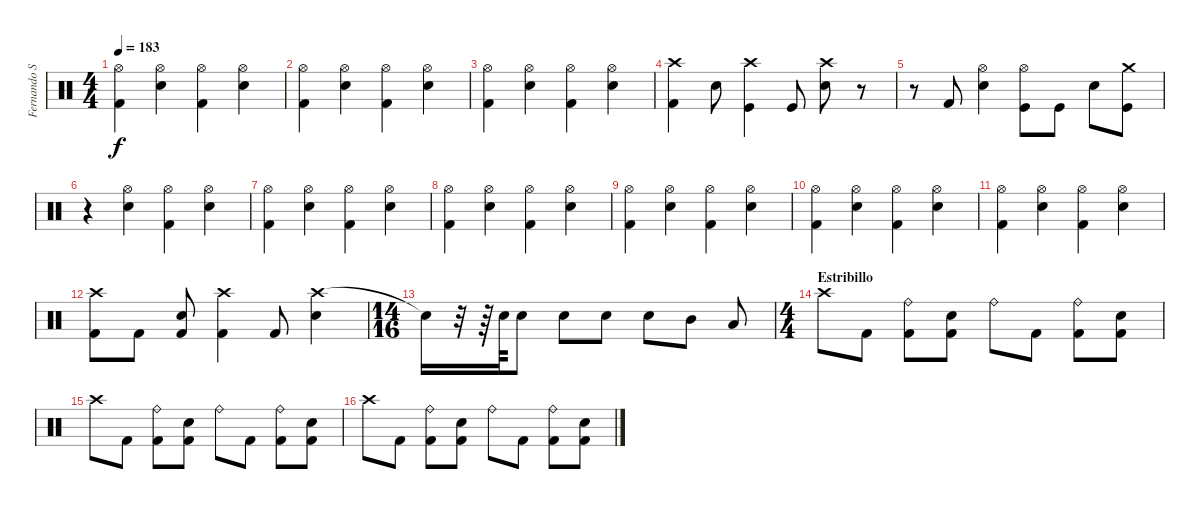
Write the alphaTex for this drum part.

\track ("Fernando Scarcella" "Fernando S") {instrument percussion}
\staff {score}
\articulation defaults
\ts (4 4)
\tempo 183
\clef neutral
\ks c
("Hi-Hat (open)" "Kick (hit) 2").4{dy f} ("Hi-Hat (open)" "Snare (hit) 2").4 ("Hi-Hat (open)" "Kick (hit) 2").4 ("Hi-Hat (open)" "Snare (hit) 2").4 |
("Hi-Hat (open)" "Kick (hit) 2").4 ("Hi-Hat (open)" "Snare (hit) 2").4 ("Hi-Hat (open)" "Kick (hit) 2").4 ("Hi-Hat (open)" "Snare (hit) 2").4 |
("Hi-Hat (open)" "Kick (hit) 2").4 ("Hi-Hat (open)" "Snare (hit) 2").4 ("Hi-Hat (open)" "Kick (hit) 2").4 ("Hi-Hat (open)" "Snare (hit) 2").4 |
("Crash high (hit)" "Kick (hit) 2").4 "Snare (hit) 2".8 ("Crash high (hit)" "Kick (hit)").4 "Kick (hit)".8 ("Crash high (hit)" "Snare (hit) 2").8 r.8 |
r.8 "Kick (hit) 2".8 ("Hi-Hat (open)" "Snare (hit) 2").4 ("Kick (hit)" "Hi-Hat (open)").8 "Kick (hit)".8 "Snare (hit) 2".8 ("Kick (hit)" "Crash medium (hit)").8 |
r.4 ("Hi-Hat (open)" "Snare (hit) 2").4 ("Hi-Hat (open)" "Kick (hit) 2").4 ("Hi-Hat (open)" "Snare (hit) 2").4 |
("Hi-Hat (open)" "Kick (hit) 2").4 ("Hi-Hat (open)" "Snare (hit) 2").4 ("Hi-Hat (open)" "Kick (hit) 2").4 ("Hi-Hat (open)" "Snare (hit) 2").4 |
("Hi-Hat (open)" "Kick (hit) 2").4 ("Hi-Hat (open)" "Snare (hit) 2").4 ("Hi-Hat (open)" "Kick (hit) 2").4 ("Hi-Hat (open)" "Snare (hit) 2").4 |
("Hi-Hat (open)" "Kick (hit) 2").4 ("Hi-Hat (open)" "Snare (hit) 2").4 ("Hi-Hat (open)" "Kick (hit) 2").4 ("Hi-Hat (open)" "Snare (hit) 2").4 |
("Hi-Hat (open)" "Kick (hit) 2").4 ("Hi-Hat (open)" "Snare (hit) 2").4 ("Hi-Hat (open)" "Kick (hit) 2").4 ("Hi-Hat (open)" "Snare (hit) 2").4 |
("Hi-Hat (open)" "Kick (hit) 2").4 ("Hi-Hat (open)" "Snare (hit) 2").4 ("Hi-Hat (open)" "Kick (hit) 2").4 ("Hi-Hat (open)" "Snare (hit) 2").4 |
("Crash high (hit)" "Kick (hit) 2").8 "Kick (hit) 2".8 ("Kick (hit) 2" "Snare (hit) 2").8 ("Crash high (hit)" "Kick (hit) 2").4 "Kick (hit) 2".8 ("Crash high (hit)" "Snare (hit) 2").4 |
\ts (14 16)
"Snare (hit)"{t}.16 r.32 r.64 "Snare (hit) 2".64 "Snare (hit) 2".8 "Snare (hit) 2".8 "Snare (hit) 2".8 "Snare (hit) 2".8 "Mid Tom (hit)".8 "Low Tom (hit)".8 |
\ts (4 4)
\section ("" "Estribillo")
"Crash high (hit)".8 "Kick (hit) 2".8 ("Kick (hit) 2" "Ride (bell)").8 ("Kick (hit) 2" "Snare (hit) 2").8 "Ride (bell)".8 "Kick (hit) 2".8 ("Kick (hit) 2" "Ride (bell)").8 ("Kick (hit) 2" "Snare (hit) 2").8 |
"Crash high (hit)".8 "Kick (hit) 2".8 ("Kick (hit) 2" "Ride (bell)").8 ("Kick (hit) 2" "Snare (hit) 2").8 "Ride (bell)".8 "Kick (hit) 2".8 ("Kick (hit) 2" "Ride (bell)").8 ("Kick (hit) 2" "Snare (hit) 2").8 |
"Crash high (hit)".8 "Kick (hit) 2".8 ("Kick (hit) 2" "Ride (bell)").8 ("Kick (hit) 2" "Snare (hit) 2").8 "Ride (bell)".8 "Kick (hit) 2".8 ("Kick (hit) 2" "Ride (bell)").8 ("Kick (hit) 2" "Snare (hit) 2").8
